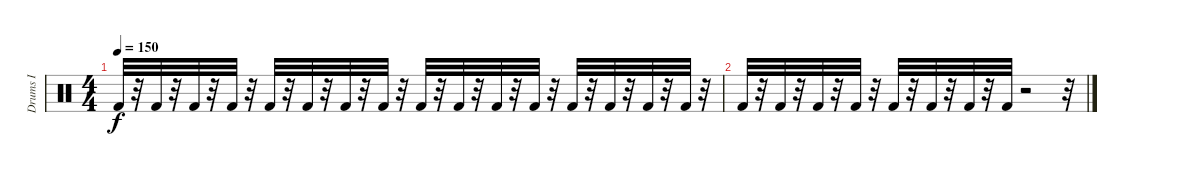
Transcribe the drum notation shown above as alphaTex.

\track ("Drums I" "Drums I") {instrument percussion}
\staff {score}
\articulation defaults
\ts (4 4)
\tempo 150
\clef neutral
\ks c "Kick (hit) 2".32{dy f volume 4}
r.32 "Kick (hit) 2".32{volume 4} r.32 "Kick (hit) 2".32{volume 4} r.32 "Kick (hit) 2".32{volume 4} r.32 "Kick (hit) 2".32{volume 4} r.32 "Kick (hit) 2".32{volume 4} r.32 "Kick (hit) 2".32{volume 3} r.32 "Kick (hit) 2".32{volume 3} r.32 "Kick (hit) 2".32{volume 3} r.32 "Kick (hit) 2".32{volume 3} r.32 "Kick (hit) 2".32{volume 3} r.32 "Kick (hit) 2".32{volume 2} r.32 "Kick (hit) 2".32{volume 2} r.32 "Kick (hit) 2".32{volume 2} r.32 "Kick (hit) 2".32{volume 2} r.32 "Kick (hit) 2".32{volume 2} r.32 |
"Kick (hit) 2".32{volume 2} r.32 "Kick (hit) 2".32{volume 1} r.32 "Kick (hit) 2".32{volume 1} r.32 "Kick (hit) 2".32{volume 1} r.32 "Kick (hit) 2".32{volume 1} r.32 "Kick (hit) 2".32{volume 0} r.32 "Kick (hit) 2".32{volume 0} r.32 "Kick (hit) 2".32{volume 0} r.2 r.32
